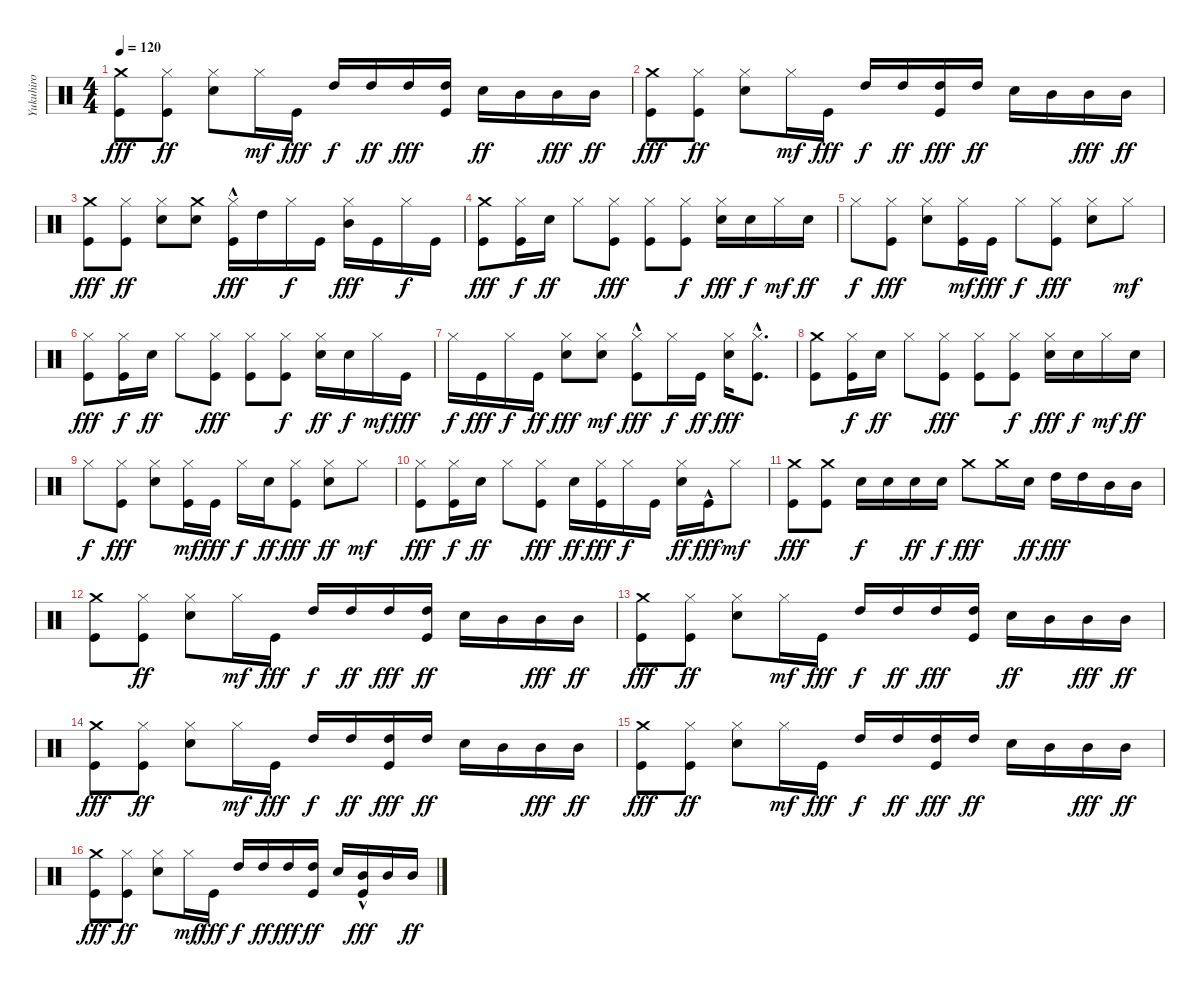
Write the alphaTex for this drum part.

\track ("Yukuhiro" "Yukuhiro") {instrument percussion}
\staff {score}
\articulation defaults
\ts (4 4)
\tempo 120
\clef neutral
\ks c
("Crash medium (hit)" "Kick (hit)").8{dy fff} ("Kick (hit)" "Hi-Hat (closed)").8{dy ff} ("Electric Snare (hit)" "Hi-Hat (closed)").8 "Hi-Hat (closed)".16{dy mf} "Kick (hit)".16{dy fff} "High Tom (hit)".16{dy f} "High Tom (hit)".16{dy ff} "High Tom (hit)".16{dy fff} ("High Tom (hit)" "Kick (hit)").16 "Electric Snare (hit)".16{dy ff} "Mid Tom (hit)".16 "Mid Tom (hit)".16{dy fff} "Mid Tom (hit)".16{dy ff} |
("Crash medium (hit)" "Kick (hit)").8{dy fff} ("Kick (hit)" "Hi-Hat (closed)").8{dy ff} ("Electric Snare (hit)" "Hi-Hat (closed)").8 "Hi-Hat (closed)".16{dy mf} "Kick (hit)".16{dy fff} "High Tom (hit)".16{dy f} "High Tom (hit)".16{dy ff} ("Kick (hit)" "High Tom (hit)").16{dy fff} "High Tom (hit)".16{dy ff} "Electric Snare (hit)".16 "Mid Tom (hit)".16 "Mid Tom (hit)".16{dy fff} "Mid Tom (hit)".16{dy ff} |
("Crash medium (hit)" "Kick (hit)").8{dy fff} ("Kick (hit)" "Hi-Hat (closed)").8{dy ff} ("Electric Snare (hit)" "Hi-Hat (closed)").8 ("Crash medium (hit)" "Electric Snare (hit)").8 ("Hi-Hat (closed)" "Kick (hit)"{hac}).16{dy fff} "High Tom (hit)".16 "Hi-Hat (closed)".16{dy f} "Kick (hit)".16 ("Mid Tom (hit)" "Hi-Hat (closed)").16{dy fff} "Kick (hit)".16 "Hi-Hat (closed)".16{dy f} "Kick (hit)".16 |
("Crash medium (hit)" "Kick (hit)").8{dy fff} ("Kick (hit)" "Hi-Hat (closed)").16{dy f} "Electric Snare (hit)".16{dy ff} "Hi-Hat (closed)".8 ("Kick (hit)" "Hi-Hat (closed)").8{dy fff} ("Hi-Hat (closed)" "Kick (hit)").8 ("Hi-Hat (closed)" "Kick (hit)").8{dy f} ("Electric Snare (hit)" "Hi-Hat (closed)").16{dy fff} "Electric Snare (hit)".16{dy f} "Hi-Hat (closed)".16{dy mf} "Electric Snare (hit)".16{dy ff} |
"Hi-Hat (closed)".8{dy f} ("Kick (hit)" "Hi-Hat (closed)").8{dy fff} ("Electric Snare (hit)" "Hi-Hat (closed)").8 ("Kick (hit)" "Hi-Hat (closed)").16{dy mf} "Kick (hit)".16{dy fff} "Hi-Hat (closed)".8{dy f} ("Hi-Hat (closed)" "Kick (hit)").8{dy fff} ("Electric Snare (hit)" "Hi-Hat (closed)").8 "Hi-Hat (closed)".8{dy mf} |
("Hi-Hat (closed)" "Kick (hit)").8{dy fff} ("Kick (hit)" "Hi-Hat (closed)").16{dy f} "Electric Snare (hit)".16{dy ff} "Hi-Hat (closed)".8 ("Hi-Hat (closed)" "Kick (hit)").8{dy fff} ("Kick (hit)" "Hi-Hat (closed)").8 ("Hi-Hat (closed)" "Kick (hit)").8{dy f} ("Hi-Hat (closed)" "Electric Snare (hit)").16{dy ff} "Electric Snare (hit)".16{dy f} "Hi-Hat (closed)".16{dy mf} "Kick (hit)".16{dy fff} |
"Hi-Hat (closed)".16{dy f} "Kick (hit)".16{dy fff} "Hi-Hat (closed)".16{dy f} "Kick (hit)".16{dy ff} ("Electric Snare (hit)" "Hi-Hat (closed)").8{dy fff} ("Electric Snare (hit)" "Hi-Hat (closed)").8{dy mf} ("Hi-Hat (closed)" "Kick (hit)"{hac}).8{dy fff} "Hi-Hat (closed)".16{dy f} "Kick (hit)".16{dy ff} ("Electric Snare (hit)" "Hi-Hat (closed)").16{dy fff} ("Hi-Hat (closed)"{hac} "Kick (hit)"{hac}).8{d} |
("Crash medium (hit)" "Kick (hit)").8 ("Hi-Hat (closed)" "Kick (hit)").16{dy f} "Electric Snare (hit)".16{dy ff} "Hi-Hat (closed)".8 ("Kick (hit)" "Hi-Hat (closed)").8{dy fff} ("Kick (hit)" "Hi-Hat (closed)").8 ("Hi-Hat (closed)" "Kick (hit)").8{dy f} ("Electric Snare (hit)" "Hi-Hat (closed)").16{dy fff} "Electric Snare (hit)".16{dy f} "Hi-Hat (closed)".16{dy mf} "Electric Snare (hit)".16{dy ff} |
"Hi-Hat (closed)".8{dy f} ("Hi-Hat (closed)" "Kick (hit)").8{dy fff} ("Electric Snare (hit)" "Hi-Hat (closed)").8 ("Kick (hit)" "Hi-Hat (closed)").16{dy mf} "Kick (hit)".16{dy fff} "Hi-Hat (closed)".16{dy f} "Electric Snare (hit)".16{dy ff} ("Hi-Hat (closed)" "Kick (hit)").8{dy fff} ("Hi-Hat (closed)" "Electric Snare (hit)").8{dy ff} "Hi-Hat (closed)".8{dy mf} |
("Hi-Hat (closed)" "Kick (hit)").8{dy fff} ("Kick (hit)" "Hi-Hat (closed)").16{dy f} "Electric Snare (hit)".16{dy ff} "Hi-Hat (closed)".8 ("Kick (hit)" "Hi-Hat (closed)").8{dy fff} "Electric Snare (hit)".16{dy ff} ("Hi-Hat (closed)" "Kick (hit)").16{dy fff} "Hi-Hat (closed)".16{dy f} "Kick (hit)".16 ("Hi-Hat (closed)" "Electric Snare (hit)").16{dy ff} "Kick (hit)"{hac}.16{dy fff} "Hi-Hat (closed)".8{dy mf} |
("Crash medium (hit)" "Kick (hit)").8{dy fff} ("Crash medium (hit)" "Kick (hit)").8 "Electric Snare (hit)".16{dy f} "Electric Snare (hit)".16 "Electric Snare (hit)".16{dy ff} "Electric Snare (hit)".16{dy f} "Crash medium (hit)".8{dy fff} "Crash medium (hit)".16 "Electric Snare (hit)".16{dy ff} "High Tom (hit)".16{dy fff} "High Tom (hit)".16 "Mid Tom (hit)".16 "Mid Tom (hit)".16 |
("Crash medium (hit)" "Kick (hit)").8 ("Kick (hit)" "Hi-Hat (closed)").8{dy ff} ("Electric Snare (hit)" "Hi-Hat (closed)").8 "Hi-Hat (closed)".16{dy mf} "Kick (hit)".16{dy fff} "High Tom (hit)".16{dy f} "High Tom (hit)".16{dy ff} "High Tom (hit)".16{dy fff} ("Kick (hit)" "High Tom (hit)").16{dy ff} "Electric Snare (hit)".16 "Mid Tom (hit)".16 "Mid Tom (hit)".16{dy fff} "Mid Tom (hit)".16{dy ff} |
("Crash medium (hit)" "Kick (hit)").8{dy fff} ("Kick (hit)" "Hi-Hat (closed)").8{dy ff} ("Electric Snare (hit)" "Hi-Hat (closed)").8 "Hi-Hat (closed)".16{dy mf} "Kick (hit)".16{dy fff} "High Tom (hit)".16{dy f} "High Tom (hit)".16{dy ff} "High Tom (hit)".16{dy fff} ("High Tom (hit)" "Kick (hit)").16 "Electric Snare (hit)".16{dy ff} "Mid Tom (hit)".16 "Mid Tom (hit)".16{dy fff} "Mid Tom (hit)".16{dy ff} |
("Crash medium (hit)" "Kick (hit)").8{dy fff} ("Kick (hit)" "Hi-Hat (closed)").8{dy ff} ("Electric Snare (hit)" "Hi-Hat (closed)").8 "Hi-Hat (closed)".16{dy mf} "Kick (hit)".16{dy fff} "High Tom (hit)".16{dy f} "High Tom (hit)".16{dy ff} ("Kick (hit)" "High Tom (hit)").16{dy fff} "High Tom (hit)".16{dy ff} "Electric Snare (hit)".16 "Mid Tom (hit)".16 "Mid Tom (hit)".16{dy fff} "Mid Tom (hit)".16{dy ff} |
("Crash medium (hit)" "Kick (hit)").8{dy fff} ("Kick (hit)" "Hi-Hat (closed)").8{dy ff} ("Electric Snare (hit)" "Hi-Hat (closed)").8 "Hi-Hat (closed)".16{dy mf} "Kick (hit)".16{dy fff} "High Tom (hit)".16{dy f} "High Tom (hit)".16{dy ff} ("Kick (hit)" "High Tom (hit)").16{dy fff} "High Tom (hit)".16{dy ff} "Electric Snare (hit)".16 "Mid Tom (hit)".16 "Mid Tom (hit)".16{dy fff} "Mid Tom (hit)".16{dy ff} |
("Crash medium (hit)" "Kick (hit)").8{dy fff} ("Hi-Hat (closed)" "Kick (hit)").8{dy ff} ("Electric Snare (hit)" "Hi-Hat (closed)").8 "Hi-Hat (closed)".16{dy mf} "Kick (hit)".16{dy fff} "High Tom (hit)".16{dy f} "High Tom (hit)".16{dy ff} "High Tom (hit)".16{dy fff} ("High Tom (hit)" "Kick (hit)").16{dy ff} "Electric Snare (hit)".16 ("Mid Tom (hit)" "Kick (hit)"{hac}).16{dy fff} "Mid Tom (hit)".16 "Mid Tom (hit)".16{dy ff}
